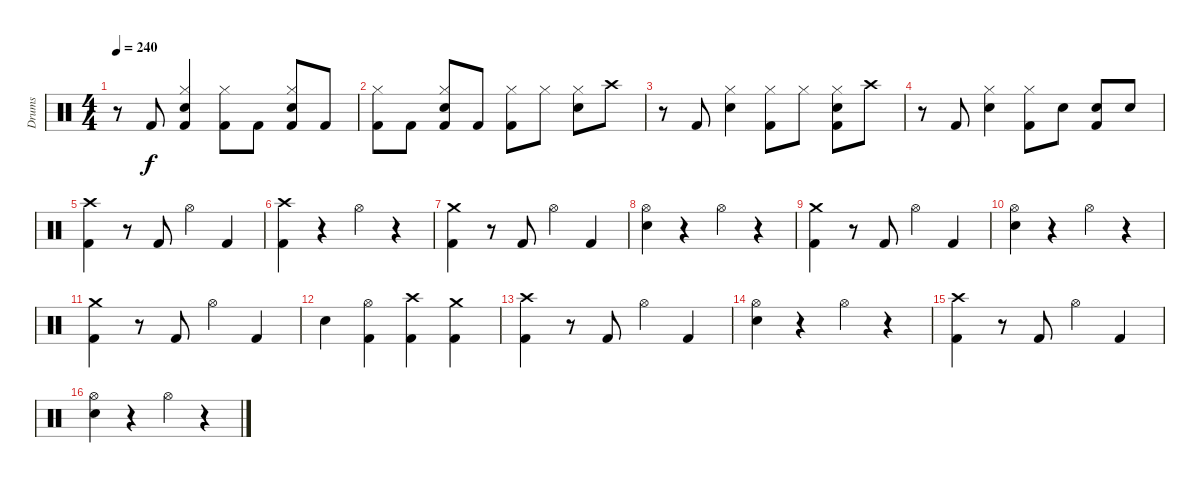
\track ("Drums" "Drums") {instrument percussion}
\staff {score}
\articulation defaults
\ts (4 4)
\tempo 240
\clef neutral
\ks c
r.8{dy f} "Kick (hit) 2".8 ("Hi-Hat (closed)" "Snare (hit) 2" "Kick (hit) 2").4 ("Hi-Hat (closed)" "Kick (hit) 2").8 "Kick (hit) 2".8 ("Hi-Hat (closed)" "Snare (hit) 2" "Kick (hit) 2").8 "Kick (hit) 2".8 |
("Hi-Hat (closed)" "Kick (hit) 2").8 "Kick (hit) 2".8 ("Hi-Hat (closed)" "Snare (hit) 2" "Kick (hit) 2").8 "Kick (hit) 2".8 ("Hi-Hat (closed)" "Kick (hit) 2").8 "Hi-Hat (closed)".8 ("Hi-Hat (closed)" "Snare (hit) 2").8 "Crash high (hit)".8 |
r.8 "Kick (hit) 2".8 ("Hi-Hat (closed)" "Snare (hit) 2").4 ("Hi-Hat (closed)" "Kick (hit) 2").8 "Hi-Hat (closed)".8 ("Hi-Hat (closed)" "Snare (hit) 2" "Kick (hit) 2").8 "Crash high (hit)".8 |
r.8 "Kick (hit) 2".8 ("Hi-Hat (closed)" "Snare (hit) 2").4 ("Hi-Hat (closed)" "Kick (hit) 2").8 "Snare (hit) 2".8 ("Snare (hit) 2" "Kick (hit) 2").8 "Snare (hit) 2".8 |
("Crash high (hit)" "Kick (hit) 2").4 r.8 "Kick (hit) 2".8 "Hi-Hat (open)".4 "Kick (hit) 2".4 |
("Crash high (hit)" "Kick (hit) 2").4 r.4 "Hi-Hat (open)".4 r.4 |
("Crash medium (hit)" "Kick (hit) 2").4 r.8 "Kick (hit) 2".8 "Hi-Hat (open)".4 "Kick (hit) 2".4 |
("Hi-Hat (open)" "Snare (hit) 2").4 r.4 "Hi-Hat (open)".4 r.4 |
("Crash medium (hit)" "Kick (hit) 2").4 r.8 "Kick (hit) 2".8 "Hi-Hat (open)".4 "Kick (hit) 2".4 |
("Hi-Hat (open)" "Snare (hit) 2").4 r.4 "Hi-Hat (open)".4 r.4 |
("Crash medium (hit)" "Kick (hit) 2").4 r.8 "Kick (hit) 2".8 "Hi-Hat (open)".4 "Kick (hit) 2".4 |
"Snare (hit) 2".4 ("Hi-Hat (open)" "Kick (hit) 2").4 ("Crash high (hit)" "Kick (hit) 2").4 ("Crash medium (hit)" "Kick (hit) 2").4 |
("Crash high (hit)" "Kick (hit) 2").4 r.8 "Kick (hit) 2".8 "Hi-Hat (open)".4 "Kick (hit) 2".4 |
("Hi-Hat (open)" "Snare (hit) 2").4 r.4 "Hi-Hat (open)".4 r.4 |
("Crash high (hit)" "Kick (hit) 2").4 r.8 "Kick (hit) 2".8 "Hi-Hat (open)".4 "Kick (hit) 2".4 |
("Hi-Hat (open)" "Snare (hit) 2").4 r.4 "Hi-Hat (open)".4 r.4
